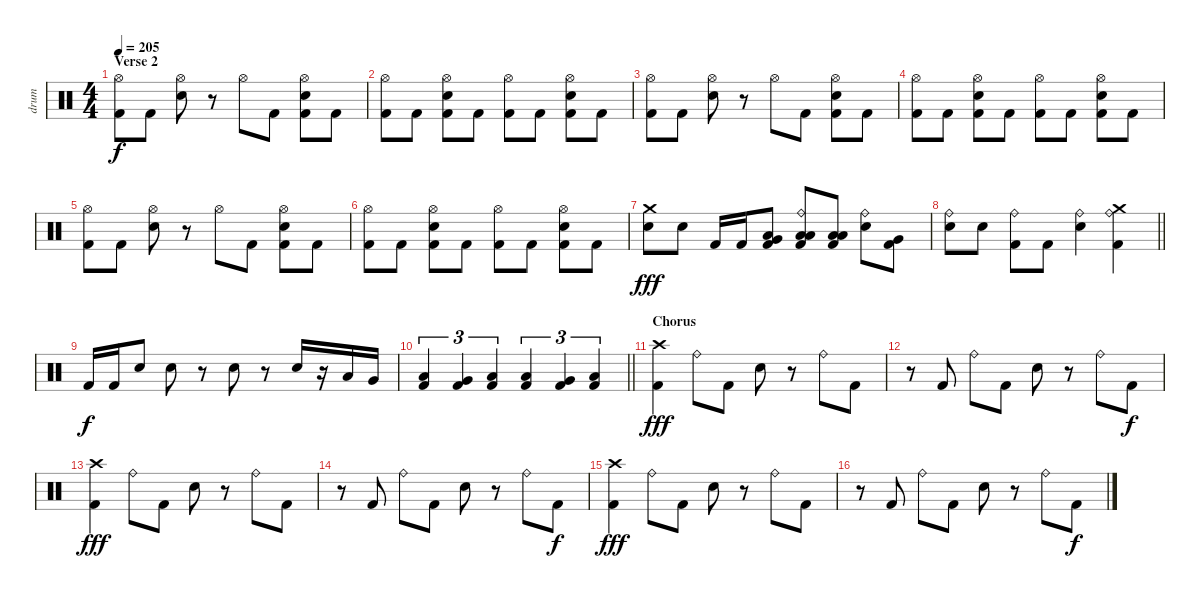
\track ("drum" "drum") {instrument percussion}
\staff {score}
\articulation defaults
\ts (4 4)
\section ("" "Verse 2")
\tempo 205
\clef neutral
\ks c
("Hi-Hat (open)" "Kick (hit) 2").8{dy f} "Kick (hit) 2".8 ("Hi-Hat (open)" "Electric Snare (hit)").8 r.8 "Hi-Hat (open)".8 "Kick (hit) 2".8 ("Hi-Hat (open)" "Electric Snare (hit)" "Kick (hit) 2").8 "Kick (hit) 2".8 |
("Hi-Hat (open)" "Kick (hit) 2").8 "Kick (hit) 2".8 ("Hi-Hat (open)" "Electric Snare (hit)" "Kick (hit) 2").8 "Kick (hit) 2".8 ("Hi-Hat (open)" "Kick (hit) 2").8 "Kick (hit) 2".8 ("Hi-Hat (open)" "Electric Snare (hit)" "Kick (hit) 2").8 "Kick (hit) 2".8 |
("Hi-Hat (open)" "Kick (hit) 2").8 "Kick (hit) 2".8 ("Hi-Hat (open)" "Electric Snare (hit)").8 r.8 "Hi-Hat (open)".8 "Kick (hit) 2".8 ("Hi-Hat (open)" "Electric Snare (hit)" "Kick (hit) 2").8 "Kick (hit) 2".8 |
("Hi-Hat (open)" "Kick (hit) 2").8 "Kick (hit) 2".8 ("Hi-Hat (open)" "Electric Snare (hit)" "Kick (hit) 2").8 "Kick (hit) 2".8 ("Hi-Hat (open)" "Kick (hit) 2").8 "Kick (hit) 2".8 ("Hi-Hat (open)" "Electric Snare (hit)" "Kick (hit) 2").8 "Kick (hit) 2".8 |
("Hi-Hat (open)" "Kick (hit) 2").8 "Kick (hit) 2".8 ("Hi-Hat (open)" "Electric Snare (hit)").8 r.8 "Hi-Hat (open)".8 "Kick (hit) 2".8 ("Hi-Hat (open)" "Electric Snare (hit)" "Kick (hit) 2").8 "Kick (hit) 2".8 |
("Hi-Hat (open)" "Kick (hit) 2").8 "Kick (hit) 2".8 ("Hi-Hat (open)" "Electric Snare (hit)" "Kick (hit) 2").8 "Kick (hit) 2".8 ("Hi-Hat (open)" "Kick (hit) 2").8 "Kick (hit) 2".8 ("Hi-Hat (open)" "Electric Snare (hit)" "Kick (hit) 2").8 "Kick (hit) 2".8 |
("Crash medium (hit)" "Electric Snare (hit)").8{dy fff} "Electric Snare (hit)".8 "Kick (hit) 2".16 "Kick (hit) 2".16 ("Very Low Tom (hit)" "Low Floor Tom (hit)" "Kick (hit) 2").8 ("Ride (bell)" "Low Tom (hit)" "Low Floor Tom (hit)" "Kick (hit) 2").8 ("Low Floor Tom (hit)" "Low Floor Tom (hit)" "Kick (hit) 2").8 ("Ride (bell)" "Electric Snare (hit)").8 ("Very Low Tom (hit)" "Kick (hit) 2").8 |
\barLineRight lightlight
("Ride (bell)" "Electric Snare (hit)").8 "Electric Snare (hit)".8 ("Ride (bell)" "Kick (hit) 2").8 "Kick (hit) 2".8 ("Ride (bell)" "Electric Snare (hit)").4 ("Ride (bell)" "Crash medium (hit)" "Kick (hit) 2").4 |
"Kick (hit) 2".16{dy f} "Kick (hit) 2".16 "Electric Snare (hit)".8 "Electric Snare (hit)".8 r.8 "Electric Snare (hit)".8 r.8 "Electric Snare (hit)".16 r.16 "Low Tom (hit)".16 "Very Low Tom (hit)".16 |
\barLineRight lightlight
("Low Tom (hit)" "Kick (hit) 2").4{tu (3 2)} ("Very Low Tom (hit)" "Kick (hit) 2").4{tu (3 2)} ("Low Floor Tom (hit)" "Kick (hit) 2").4{tu (3 2)} ("Low Tom (hit)" "Kick (hit) 2").4{tu (3 2)} ("Very Low Tom (hit)" "Kick (hit) 2").4{tu (3 2)} ("Low Floor Tom (hit)" "Kick (hit) 2").4{tu (3 2)} |
\section ("" "Chorus")
("Crash high (hit)" "Kick (hit) 2").4{dy fff} "Ride (bell)".8 "Kick (hit) 2".8 "Electric Snare (hit)".8 r.8 "Ride (bell)".8 "Kick (hit) 2".8 |
r.8 "Kick (hit) 2".8 "Ride (bell)".8 "Kick (hit) 2".8 "Electric Snare (hit)".8 r.8 "Ride (bell)".8 "Kick (hit) 2".8{dy f} |
("Crash high (hit)" "Kick (hit) 2").4{dy fff} "Ride (bell)".8 "Kick (hit) 2".8 "Electric Snare (hit)".8 r.8 "Ride (bell)".8 "Kick (hit) 2".8 |
r.8 "Kick (hit) 2".8 "Ride (bell)".8 "Kick (hit) 2".8 "Electric Snare (hit)".8 r.8 "Ride (bell)".8 "Kick (hit) 2".8{dy f} |
("Crash high (hit)" "Kick (hit) 2").4{dy fff} "Ride (bell)".8 "Kick (hit) 2".8 "Electric Snare (hit)".8 r.8 "Ride (bell)".8 "Kick (hit) 2".8 |
r.8 "Kick (hit) 2".8 "Ride (bell)".8 "Kick (hit) 2".8 "Electric Snare (hit)".8 r.8 "Ride (bell)".8 "Kick (hit) 2".8{dy f}
